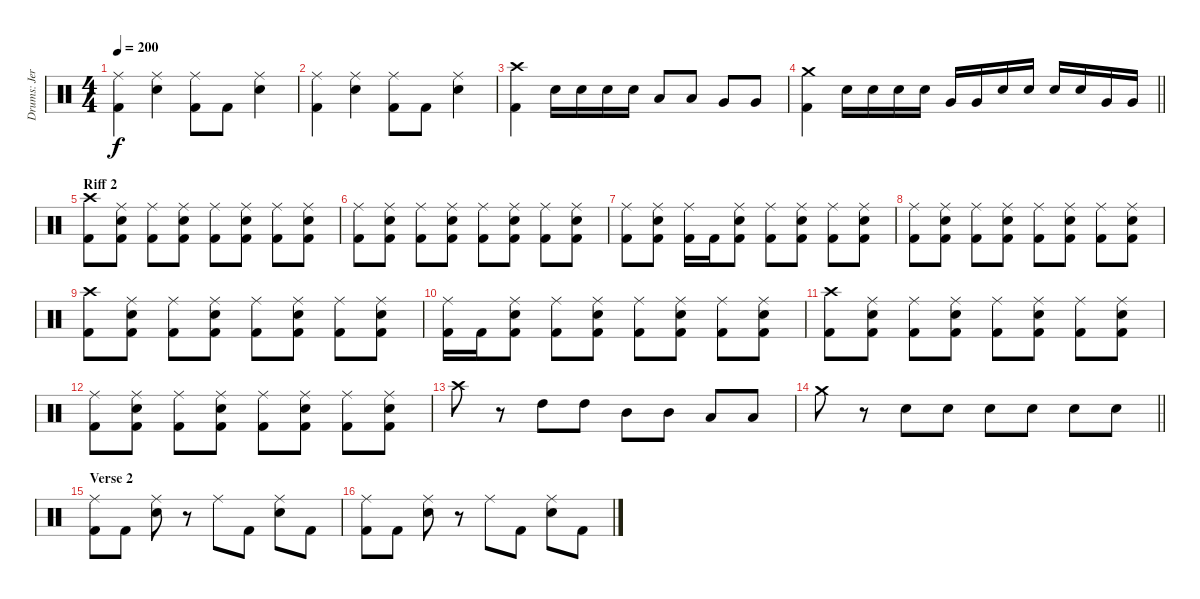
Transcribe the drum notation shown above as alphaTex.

\track ("Drums: Jere Luokkamäki" "Drums: Jer") {instrument percussion}
\staff {score}
\articulation defaults
\ts (4 4)
\tempo 200
\clef neutral
\ks aminor
("Ride (middle)" "Kick (hit) 2").4{dy f} ("Ride (middle)" "Electric Snare (hit)").4 ("Ride (middle)" "Kick (hit) 2").8 "Kick (hit) 2".8 ("Ride (middle)" "Electric Snare (hit)").4 |
("Ride (middle)" "Kick (hit) 2").4 ("Ride (middle)" "Electric Snare (hit)").4 ("Ride (middle)" "Kick (hit) 2").8 "Kick (hit) 2".8 ("Ride (middle)" "Electric Snare (hit)").4 |
("Crash high (hit)" "Kick (hit) 2").4 "Electric Snare (hit)".16 "Electric Snare (hit)".16 "Electric Snare (hit)".16 "Electric Snare (hit)".16 "Low Tom (hit)".8 "Low Tom (hit)".8 "Very Low Tom (hit)".8 "Very Low Tom (hit)".8 |
\barLineRight lightlight
("Crash medium (hit)" "Kick (hit) 2").4 "Electric Snare (hit)".16 "Electric Snare (hit)".16 "Electric Snare (hit)".16 "Electric Snare (hit)".16 "Very Low Tom (hit)".16 "Very Low Tom (hit)".16 "Electric Snare (hit)".16 "Electric Snare (hit)".16 "Electric Snare (hit)".16 "Electric Snare (hit)".16 "Very Low Tom (hit)".16 "Very Low Tom (hit)".16 |
\section ("" "Riff 2")
("Crash high (hit)" "Kick (hit) 2").8 ("Ride (middle)" "Electric Snare (hit)" "Kick (hit) 2").8 ("Ride (middle)" "Kick (hit) 2").8 ("Ride (middle)" "Electric Snare (hit)" "Kick (hit) 2").8 ("Ride (middle)" "Kick (hit) 2").8 ("Ride (middle)" "Electric Snare (hit)" "Kick (hit) 2").8 ("Ride (middle)" "Kick (hit) 2").8 ("Ride (middle)" "Electric Snare (hit)" "Kick (hit) 2").8 |
("Ride (middle)" "Kick (hit) 2").8 ("Ride (middle)" "Electric Snare (hit)" "Kick (hit) 2").8 ("Ride (middle)" "Kick (hit) 2").8 ("Ride (middle)" "Electric Snare (hit)" "Kick (hit) 2").8 ("Ride (middle)" "Kick (hit) 2").8 ("Ride (middle)" "Electric Snare (hit)" "Kick (hit) 2").8 ("Ride (middle)" "Kick (hit) 2").8 ("Ride (middle)" "Electric Snare (hit)" "Kick (hit) 2").8 |
("Ride (middle)" "Kick (hit) 2").8 ("Ride (middle)" "Electric Snare (hit)" "Kick (hit) 2").8 ("Ride (middle)" "Kick (hit) 2").16 "Kick (hit) 2".16 ("Ride (middle)" "Electric Snare (hit)" "Kick (hit) 2").8 ("Ride (middle)" "Kick (hit) 2").8 ("Ride (middle)" "Electric Snare (hit)" "Kick (hit) 2").8 ("Ride (middle)" "Kick (hit) 2").8 ("Ride (middle)" "Electric Snare (hit)" "Kick (hit) 2").8 |
("Ride (middle)" "Kick (hit) 2").8 ("Ride (middle)" "Electric Snare (hit)" "Kick (hit) 2").8 ("Ride (middle)" "Kick (hit) 2").8 ("Ride (middle)" "Electric Snare (hit)" "Kick (hit) 2").8 ("Ride (middle)" "Kick (hit) 2").8 ("Ride (middle)" "Electric Snare (hit)" "Kick (hit) 2").8 ("Ride (middle)" "Kick (hit) 2").8 ("Ride (middle)" "Electric Snare (hit)" "Kick (hit) 2").8 |
("Crash high (hit)" "Kick (hit) 2").8 ("Ride (middle)" "Electric Snare (hit)" "Kick (hit) 2").8 ("Ride (middle)" "Kick (hit) 2").8 ("Ride (middle)" "Electric Snare (hit)" "Kick (hit) 2").8 ("Ride (middle)" "Kick (hit) 2").8 ("Ride (middle)" "Electric Snare (hit)" "Kick (hit) 2").8 ("Ride (middle)" "Kick (hit) 2").8 ("Ride (middle)" "Electric Snare (hit)" "Kick (hit) 2").8 |
("Ride (middle)" "Kick (hit) 2").16 "Kick (hit) 2".16 ("Ride (middle)" "Electric Snare (hit)" "Kick (hit) 2").8 ("Ride (middle)" "Kick (hit) 2").8 ("Ride (middle)" "Electric Snare (hit)" "Kick (hit) 2").8 ("Ride (middle)" "Kick (hit) 2").8 ("Ride (middle)" "Electric Snare (hit)" "Kick (hit) 2").8 ("Ride (middle)" "Kick (hit) 2").8 ("Ride (middle)" "Electric Snare (hit)" "Kick (hit) 2").8 |
("Crash high (hit)" "Kick (hit) 2").8 ("Ride (middle)" "Electric Snare (hit)" "Kick (hit) 2").8 ("Ride (middle)" "Kick (hit) 2").8 ("Ride (middle)" "Electric Snare (hit)" "Kick (hit) 2").8 ("Ride (middle)" "Kick (hit) 2").8 ("Ride (middle)" "Electric Snare (hit)" "Kick (hit) 2").8 ("Ride (middle)" "Kick (hit) 2").8 ("Ride (middle)" "Electric Snare (hit)" "Kick (hit) 2").8 |
("Ride (middle)" "Kick (hit) 2").8 ("Ride (middle)" "Electric Snare (hit)" "Kick (hit) 2").8 ("Ride (middle)" "Kick (hit) 2").8 ("Ride (middle)" "Electric Snare (hit)" "Kick (hit) 2").8 ("Ride (middle)" "Kick (hit) 2").8 ("Ride (middle)" "Electric Snare (hit)" "Kick (hit) 2").8 ("Ride (middle)" "Kick (hit) 2").8 ("Ride (middle)" "Electric Snare (hit)" "Kick (hit) 2").8 |
"Crash high (hit)".8 r.8 "High Tom (hit)".8 "High Tom (hit)".8 "Mid Tom (hit)".8 "Mid Tom (hit)".8 "Low Tom (hit)".8 "Low Tom (hit)".8 |
\barLineRight lightlight "Crash medium (hit)".8
r.8 "Electric Snare (hit)".8 "Electric Snare (hit)".8 "Electric Snare (hit)".8 "Electric Snare (hit)".8 "Electric Snare (hit)".8 "Electric Snare (hit)".8 |
\section ("" "Verse 2")
("Ride (middle)" "Kick (hit) 2").8 "Kick (hit) 2".8 ("Ride (middle)" "Electric Snare (hit)").8 r.8 "Ride (middle)".8 "Kick (hit) 2".8 ("Ride (middle)" "Electric Snare (hit)").8 "Kick (hit) 2".8 |
("Ride (middle)" "Kick (hit) 2").8 "Kick (hit) 2".8 ("Ride (middle)" "Electric Snare (hit)").8 r.8 "Ride (middle)".8 "Kick (hit) 2".8 ("Ride (middle)" "Electric Snare (hit)").8 "Kick (hit) 2".8
